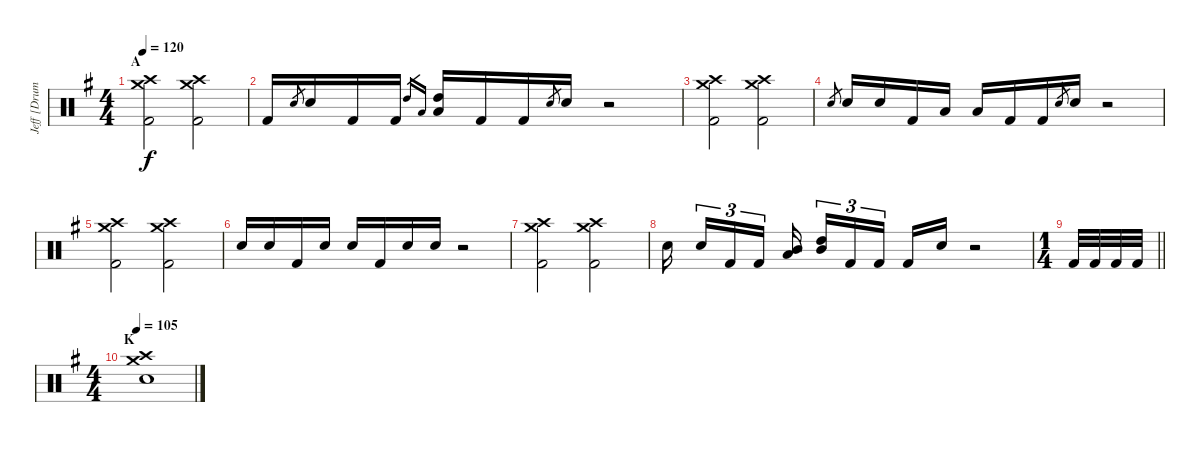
\track ("Jeff [Drums]" "Jeff [Drum") {instrument percussion}
\staff {score}
\articulation defaults
\ts (4 4)
\section ("" "A")
\tempo 120
\clef neutral
\ks g
("Crash high (hit)" "Crash medium (hit)" "Kick (hit) 2").2{dy f} ("Crash high (hit)" "Crash medium (hit)" "Kick (hit) 2").2 |
"Kick (hit) 2".16 "Electric Snare (hit)".8{gr} "Electric Snare (hit)".16 "Kick (hit) 2".16 "Kick (hit) 2".16 "High Tom (hit)".16{gr} "Low Tom (hit)".16{gr} ("High Tom (hit)" "Low Tom (hit)").16 "Kick (hit) 2".16 "Kick (hit) 2".16 "Electric Snare (hit)".8{gr} "Electric Snare (hit)".16 r.2 |
("Crash high (hit)" "Crash medium (hit)" "Kick (hit) 2").2 ("Crash high (hit)" "Crash medium (hit)" "Kick (hit) 2").2 |
"Electric Snare (hit)".8{gr} "Electric Snare (hit)".16 "Electric Snare (hit)".16 "Kick (hit) 2".16 "Low Tom (hit)".16 "Low Tom (hit)".16 "Kick (hit) 2".16 "Kick (hit) 2".16 "Electric Snare (hit)".8{gr} "Electric Snare (hit)".16 r.2 |
("Crash high (hit)" "Crash medium (hit)" "Kick (hit) 2").2 ("Crash high (hit)" "Crash medium (hit)" "Kick (hit) 2").2 |
"Electric Snare (hit)".16 "Electric Snare (hit)".16 "Kick (hit) 2".16 "Electric Snare (hit)".16 "Electric Snare (hit)".16 "Kick (hit) 2".16 "Electric Snare (hit)".16 "Electric Snare (hit)".16 r.2 |
("Crash high (hit)" "Crash medium (hit)" "Kick (hit) 2").2 ("Crash high (hit)" "Crash medium (hit)" "Kick (hit) 2").2 |
"Electric Snare (hit)".16{beam splitsecondary} "Electric Snare (hit)".16{tu (3 2)} "Kick (hit) 2".16{tu (3 2)} "Kick (hit) 2".16{tu (3 2) beam splitsecondary} ("Mid Tom (hit)" "Low Tom (hit)").16 ("High Tom (hit)" "Mid Tom (hit)").16{tu (3 2)} "Kick (hit) 2".16{tu (3 2)} "Kick (hit) 2".16{tu (3 2) beam splitsecondary} "Kick (hit) 2".16 "Electric Snare (hit)".16 r.2 |
\ts (1 4)
\barLineRight lightlight "Kick (hit) 2".32 "Kick (hit) 2".32 "Kick (hit) 2".32 "Kick (hit) 2".32
|
\ts (4 4)
\section ("" "K")
\tempo 105
("Crash high (hit)" "Crash medium (hit)" "Electric Snare (hit)").1
